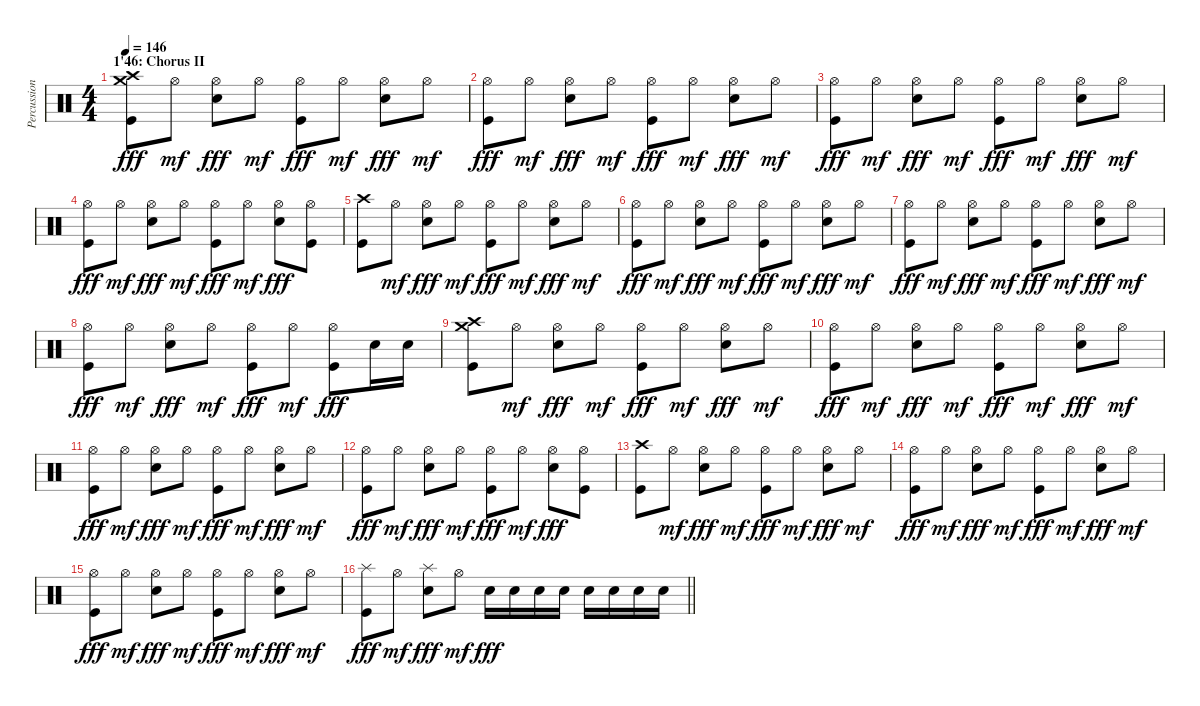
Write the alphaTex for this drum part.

\track ("Percussions" "Percussion") {instrument percussion}
\staff {score}
\articulation defaults
\ts (4 4)
\section ("" "1'46: Chorus II")
\tempo 146
\clef neutral
\ks c
("Crash high (hit)" "Crash medium (hit)" "Kick (hit)").8{dy fff} "Hi-Hat (open)".8{dy mf} ("Hi-Hat (open)" "Snare (hit) 2").8{dy fff} "Hi-Hat (open)".8{dy mf} ("Hi-Hat (open)" "Kick (hit)").8{dy fff} "Hi-Hat (open)".8{dy mf} ("Hi-Hat (open)" "Snare (hit) 2").8{dy fff} "Hi-Hat (open)".8{dy mf} |
("Hi-Hat (open)" "Kick (hit)").8{dy fff} "Hi-Hat (open)".8{dy mf} ("Hi-Hat (open)" "Snare (hit) 2").8{dy fff} "Hi-Hat (open)".8{dy mf} ("Hi-Hat (open)" "Kick (hit)").8{dy fff} "Hi-Hat (open)".8{dy mf} ("Hi-Hat (open)" "Snare (hit) 2").8{dy fff} "Hi-Hat (open)".8{dy mf} |
("Hi-Hat (open)" "Kick (hit)").8{dy fff} "Hi-Hat (open)".8{dy mf} ("Hi-Hat (open)" "Snare (hit) 2").8{dy fff} "Hi-Hat (open)".8{dy mf} ("Hi-Hat (open)" "Kick (hit)").8{dy fff} "Hi-Hat (open)".8{dy mf} ("Hi-Hat (open)" "Snare (hit) 2").8{dy fff} "Hi-Hat (open)".8{dy mf} |
("Hi-Hat (open)" "Kick (hit)").8{dy fff} "Hi-Hat (open)".8{dy mf} ("Hi-Hat (open)" "Snare (hit) 2").8{dy fff} "Hi-Hat (open)".8{dy mf} ("Hi-Hat (open)" "Kick (hit)").8{dy fff} "Hi-Hat (open)".8{dy mf} ("Hi-Hat (open)" "Snare (hit) 2").8{dy fff} ("Hi-Hat (open)" "Kick (hit)").8 |
("Crash high (hit)" "Kick (hit)").8 "Hi-Hat (open)".8{dy mf} ("Hi-Hat (open)" "Snare (hit) 2").8{dy fff} "Hi-Hat (open)".8{dy mf} ("Hi-Hat (open)" "Kick (hit)").8{dy fff} "Hi-Hat (open)".8{dy mf} ("Hi-Hat (open)" "Snare (hit) 2").8{dy fff} "Hi-Hat (open)".8{dy mf} |
("Hi-Hat (open)" "Kick (hit)").8{dy fff} "Hi-Hat (open)".8{dy mf} ("Hi-Hat (open)" "Snare (hit) 2").8{dy fff} "Hi-Hat (open)".8{dy mf} ("Hi-Hat (open)" "Kick (hit)").8{dy fff} "Hi-Hat (open)".8{dy mf} ("Hi-Hat (open)" "Snare (hit) 2").8{dy fff} "Hi-Hat (open)".8{dy mf} |
("Hi-Hat (open)" "Kick (hit)").8{dy fff} "Hi-Hat (open)".8{dy mf} ("Hi-Hat (open)" "Snare (hit) 2").8{dy fff} "Hi-Hat (open)".8{dy mf} ("Hi-Hat (open)" "Kick (hit)").8{dy fff} "Hi-Hat (open)".8{dy mf} ("Hi-Hat (open)" "Snare (hit) 2").8{dy fff} "Hi-Hat (open)".8{dy mf} |
("Hi-Hat (open)" "Kick (hit)").8{dy fff} "Hi-Hat (open)".8{dy mf} ("Hi-Hat (open)" "Snare (hit) 2").8{dy fff} "Hi-Hat (open)".8{dy mf} ("Hi-Hat (open)" "Kick (hit)").8{dy fff} "Hi-Hat (open)".8{dy mf} ("Hi-Hat (open)" "Kick (hit)").8{dy fff} "Snare (hit) 2".16 "Snare (hit) 2".16 |
("Crash high (hit)" "Crash medium (hit)" "Kick (hit)").8 "Hi-Hat (open)".8{dy mf} ("Hi-Hat (open)" "Snare (hit) 2").8{dy fff} "Hi-Hat (open)".8{dy mf} ("Hi-Hat (open)" "Kick (hit)").8{dy fff} "Hi-Hat (open)".8{dy mf} ("Hi-Hat (open)" "Snare (hit) 2").8{dy fff} "Hi-Hat (open)".8{dy mf} |
("Hi-Hat (open)" "Kick (hit)").8{dy fff} "Hi-Hat (open)".8{dy mf} ("Hi-Hat (open)" "Snare (hit) 2").8{dy fff} "Hi-Hat (open)".8{dy mf} ("Hi-Hat (open)" "Kick (hit)").8{dy fff} "Hi-Hat (open)".8{dy mf} ("Hi-Hat (open)" "Snare (hit) 2").8{dy fff} "Hi-Hat (open)".8{dy mf} |
("Hi-Hat (open)" "Kick (hit)").8{dy fff} "Hi-Hat (open)".8{dy mf} ("Hi-Hat (open)" "Snare (hit) 2").8{dy fff} "Hi-Hat (open)".8{dy mf} ("Hi-Hat (open)" "Kick (hit)").8{dy fff} "Hi-Hat (open)".8{dy mf} ("Hi-Hat (open)" "Snare (hit) 2").8{dy fff} "Hi-Hat (open)".8{dy mf} |
("Hi-Hat (open)" "Kick (hit)").8{dy fff} "Hi-Hat (open)".8{dy mf} ("Hi-Hat (open)" "Snare (hit) 2").8{dy fff} "Hi-Hat (open)".8{dy mf} ("Hi-Hat (open)" "Kick (hit)").8{dy fff} "Hi-Hat (open)".8{dy mf} ("Hi-Hat (open)" "Snare (hit) 2").8{dy fff} ("Hi-Hat (open)" "Kick (hit)").8 |
("Crash high (hit)" "Kick (hit)").8 "Hi-Hat (open)".8{dy mf} ("Hi-Hat (open)" "Snare (hit) 2").8{dy fff} "Hi-Hat (open)".8{dy mf} ("Hi-Hat (open)" "Kick (hit)").8{dy fff} "Hi-Hat (open)".8{dy mf} ("Hi-Hat (open)" "Snare (hit) 2").8{dy fff} "Hi-Hat (open)".8{dy mf} |
("Hi-Hat (open)" "Kick (hit)").8{dy fff} "Hi-Hat (open)".8{dy mf} ("Hi-Hat (open)" "Snare (hit) 2").8{dy fff} "Hi-Hat (open)".8{dy mf} ("Hi-Hat (open)" "Kick (hit)").8{dy fff} "Hi-Hat (open)".8{dy mf} ("Hi-Hat (open)" "Snare (hit) 2").8{dy fff} "Hi-Hat (open)".8{dy mf} |
("Hi-Hat (open)" "Kick (hit)").8{dy fff} "Hi-Hat (open)".8{dy mf} ("Hi-Hat (open)" "Snare (hit) 2").8{dy fff} "Hi-Hat (open)".8{dy mf} ("Hi-Hat (open)" "Kick (hit)").8{dy fff} "Hi-Hat (open)".8{dy mf} ("Hi-Hat (open)" "Snare (hit) 2").8{dy fff} "Hi-Hat (open)".8{dy mf} |
\barLineRight lightlight
("Splash (hit)" "Kick (hit)").8{dy fff} "Hi-Hat (open)".8{dy mf} ("Splash (hit)" "Snare (hit) 2").8{dy fff} "Hi-Hat (open)".8{dy mf} "Snare (hit) 2".16{dy fff} "Snare (hit) 2".16 "Snare (hit) 2".16 "Snare (hit) 2".16 "Snare (hit) 2".16 "Snare (hit) 2".16 "Snare (hit) 2".16 "Snare (hit) 2".16
